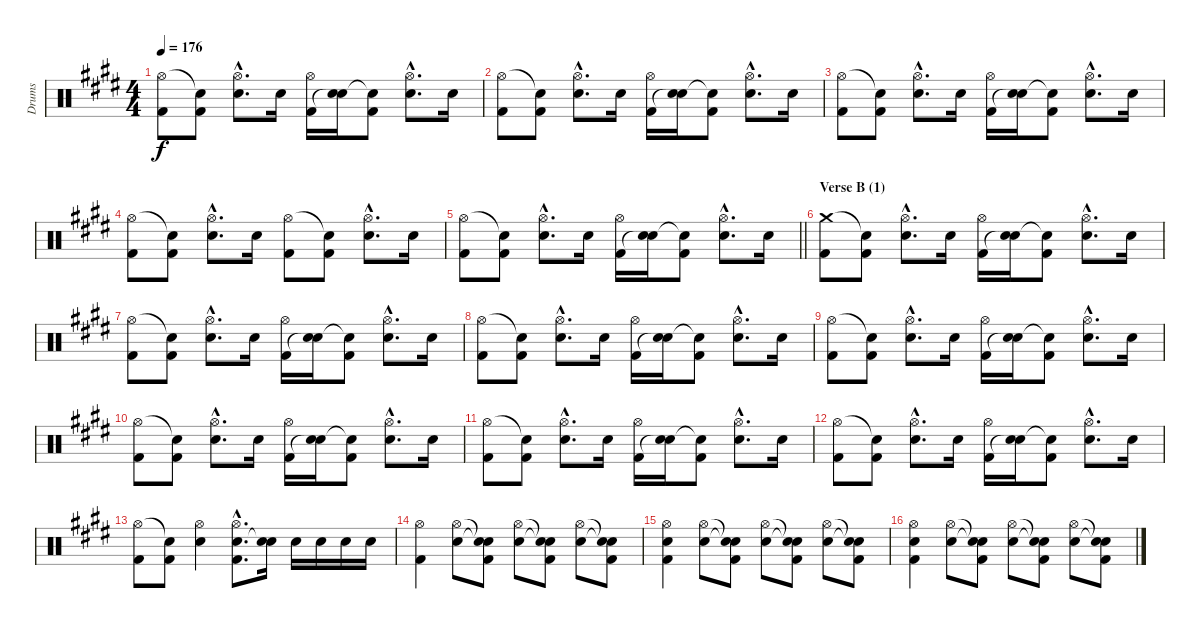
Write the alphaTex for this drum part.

\track ("Drums" "Drums") {instrument percussion}
\staff {score}
\articulation defaults
\ts (4 4)
\tempo 176
\clef neutral
\ks c#minor
("Hi-Hat (open)" "Kick (hit) 2").8{dy f} ("Snare (hit)"{t} "Kick (hit) 2").8 ("Hi-Hat (open)"{hac} "Electric Snare (hit)"{hac}).8{d} "Electric Snare (hit)".16 ("Hi-Hat (open)" "Kick (hit) 2").16 ("Electric Snare (hit)" "Snare (hit)"{t}).16 ("Snare (hit)"{t} "Kick (hit) 2").8 ("Hi-Hat (open)"{hac} "Electric Snare (hit)"{hac}).8{d} "Electric Snare (hit)".16 |
("Hi-Hat (open)" "Kick (hit) 2").8 ("Snare (hit)"{t} "Kick (hit) 2").8 ("Hi-Hat (open)"{hac} "Electric Snare (hit)"{hac}).8{d} "Electric Snare (hit)".16 ("Hi-Hat (open)" "Kick (hit) 2").16 ("Electric Snare (hit)" "Snare (hit)"{t}).16 ("Snare (hit)"{t} "Kick (hit) 2").8 ("Hi-Hat (open)"{hac} "Electric Snare (hit)"{hac}).8{d} "Electric Snare (hit)".16 |
("Hi-Hat (open)" "Kick (hit) 2").8 ("Snare (hit)"{t} "Kick (hit) 2").8 ("Hi-Hat (open)"{hac} "Electric Snare (hit)"{hac}).8{d} "Electric Snare (hit)".16 ("Hi-Hat (open)" "Kick (hit) 2").16 ("Electric Snare (hit)" "Snare (hit)"{t}).16 ("Snare (hit)"{t} "Kick (hit) 2").8 ("Hi-Hat (open)"{hac} "Electric Snare (hit)"{hac}).8{d} "Electric Snare (hit)".16 |
("Hi-Hat (open)" "Kick (hit) 2").8 ("Snare (hit)"{t} "Kick (hit) 2").8 ("Hi-Hat (open)"{hac} "Electric Snare (hit)"{hac}).8{d} "Electric Snare (hit)".16 ("Hi-Hat (open)" "Kick (hit) 2").8 ("Snare (hit)"{t} "Kick (hit) 2").8 ("Hi-Hat (open)"{hac} "Electric Snare (hit)"{hac}).8{d} "Electric Snare (hit)".16 |
\barLineRight lightlight
("Hi-Hat (open)" "Kick (hit) 2").8 ("Snare (hit)"{t} "Kick (hit) 2").8 ("Hi-Hat (open)"{hac} "Electric Snare (hit)"{hac}).8{d} "Electric Snare (hit)".16 ("Hi-Hat (open)" "Kick (hit) 2").16 ("Electric Snare (hit)" "Snare (hit)"{t}).16 ("Snare (hit)"{t} "Kick (hit) 2").8 ("Hi-Hat (open)"{hac} "Electric Snare (hit)"{hac}).8{d} "Electric Snare (hit)".16 |
\section ("" "Verse B (1)")
("Crash medium (hit)" "Kick (hit) 2").8 ("Snare (hit)"{t} "Kick (hit) 2").8 ("Hi-Hat (open)"{hac} "Electric Snare (hit)"{hac}).8{d} "Electric Snare (hit)".16 ("Hi-Hat (open)" "Kick (hit) 2").16 ("Electric Snare (hit)" "Snare (hit)"{t}).16 ("Snare (hit)"{t} "Kick (hit) 2").8 ("Hi-Hat (open)"{hac} "Electric Snare (hit)"{hac}).8{d} "Electric Snare (hit)".16 |
("Hi-Hat (open)" "Kick (hit) 2").8 ("Snare (hit)"{t} "Kick (hit) 2").8 ("Hi-Hat (open)"{hac} "Electric Snare (hit)"{hac}).8{d} "Electric Snare (hit)".16 ("Hi-Hat (open)" "Kick (hit) 2").16 ("Electric Snare (hit)" "Snare (hit)"{t}).16 ("Snare (hit)"{t} "Kick (hit) 2").8 ("Hi-Hat (open)"{hac} "Electric Snare (hit)"{hac}).8{d} "Electric Snare (hit)".16 |
("Hi-Hat (open)" "Kick (hit) 2").8 ("Snare (hit)"{t} "Kick (hit) 2").8 ("Hi-Hat (open)"{hac} "Electric Snare (hit)"{hac}).8{d} "Electric Snare (hit)".16 ("Hi-Hat (open)" "Kick (hit) 2").16 ("Electric Snare (hit)" "Snare (hit)"{t}).16 ("Snare (hit)"{t} "Kick (hit) 2").8 ("Hi-Hat (open)"{hac} "Electric Snare (hit)"{hac}).8{d} "Electric Snare (hit)".16 |
("Hi-Hat (open)" "Kick (hit) 2").8 ("Snare (hit)"{t} "Kick (hit) 2").8 ("Hi-Hat (open)"{hac} "Electric Snare (hit)"{hac}).8{d} "Electric Snare (hit)".16 ("Hi-Hat (open)" "Kick (hit) 2").16 ("Electric Snare (hit)" "Snare (hit)"{t}).16 ("Snare (hit)"{t} "Kick (hit) 2").8 ("Hi-Hat (open)"{hac} "Electric Snare (hit)"{hac}).8{d} "Electric Snare (hit)".16 |
("Hi-Hat (open)" "Kick (hit) 2").8 ("Snare (hit)"{t} "Kick (hit) 2").8 ("Hi-Hat (open)"{hac} "Electric Snare (hit)"{hac}).8{d} "Electric Snare (hit)".16 ("Hi-Hat (open)" "Kick (hit) 2").16 ("Electric Snare (hit)" "Snare (hit)"{t}).16 ("Snare (hit)"{t} "Kick (hit) 2").8 ("Hi-Hat (open)"{hac} "Electric Snare (hit)"{hac}).8{d} "Electric Snare (hit)".16 |
("Hi-Hat (open)" "Kick (hit) 2").8 ("Snare (hit)"{t} "Kick (hit) 2").8 ("Hi-Hat (open)"{hac} "Electric Snare (hit)"{hac}).8{d} "Electric Snare (hit)".16 ("Hi-Hat (open)" "Kick (hit) 2").16 ("Electric Snare (hit)" "Snare (hit)"{t}).16 ("Snare (hit)"{t} "Kick (hit) 2").8 ("Hi-Hat (open)"{hac} "Electric Snare (hit)"{hac}).8{d} "Electric Snare (hit)".16 |
("Hi-Hat (open)" "Kick (hit) 2").8 ("Snare (hit)"{t} "Kick (hit) 2").8 ("Hi-Hat (open)"{hac} "Electric Snare (hit)"{hac}).8{d} "Electric Snare (hit)".16 ("Hi-Hat (open)" "Kick (hit) 2").16 ("Electric Snare (hit)" "Snare (hit)"{t}).16 ("Snare (hit)"{t} "Kick (hit) 2").8 ("Hi-Hat (open)"{hac} "Electric Snare (hit)"{hac}).8{d} "Electric Snare (hit)".16 |
("Hi-Hat (open)" "Kick (hit) 2").8 ("Snare (hit)"{t} "Kick (hit) 2").8 ("Hi-Hat (open)" "Electric Snare (hit)").4 ("Hi-Hat (open)"{hac} "Electric Snare (hit)"{hac} "Kick (hit) 2"{hac}).8{d} ("Electric Snare (hit)" "Snare (hit)"{t}).16 "Electric Snare (hit)".16 "Electric Snare (hit)".16 "Electric Snare (hit)".16 "Electric Snare (hit)".16 |
("Hi-Hat (open)" "Kick (hit) 2").4 ("Hi-Hat (open)" "Electric Snare (hit)").8 ("Snare (hit)"{t} "Snare (hit)"{t} "Kick (hit) 2").8 ("Hi-Hat (open)" "Electric Snare (hit)").8 ("Snare (hit)"{t} "Snare (hit)"{t} "Kick (hit) 2").8 ("Hi-Hat (open)" "Electric Snare (hit)").8 ("Snare (hit)"{t} "Snare (hit)"{t} "Kick (hit) 2").8 |
("Hi-Hat (open)" "Electric Snare (hit)" "Kick (hit) 2").4 ("Hi-Hat (open)" "Electric Snare (hit)").8 ("Snare (hit)"{t} "Snare (hit)"{t} "Kick (hit) 2").8 ("Hi-Hat (open)" "Electric Snare (hit)").8 ("Snare (hit)"{t} "Snare (hit)"{t} "Kick (hit) 2").8 ("Hi-Hat (open)" "Electric Snare (hit)").8 ("Snare (hit)"{t} "Snare (hit)"{t} "Kick (hit) 2").8 |
("Hi-Hat (open)" "Electric Snare (hit)" "Kick (hit) 2").4 ("Hi-Hat (open)" "Electric Snare (hit)").8 ("Snare (hit)"{t} "Snare (hit)"{t} "Kick (hit) 2").8 ("Hi-Hat (open)" "Electric Snare (hit)").8 ("Snare (hit)"{t} "Snare (hit)"{t} "Kick (hit) 2").8 ("Hi-Hat (open)" "Electric Snare (hit)").8 ("Snare (hit)"{t} "Snare (hit)"{t} "Kick (hit) 2").8
